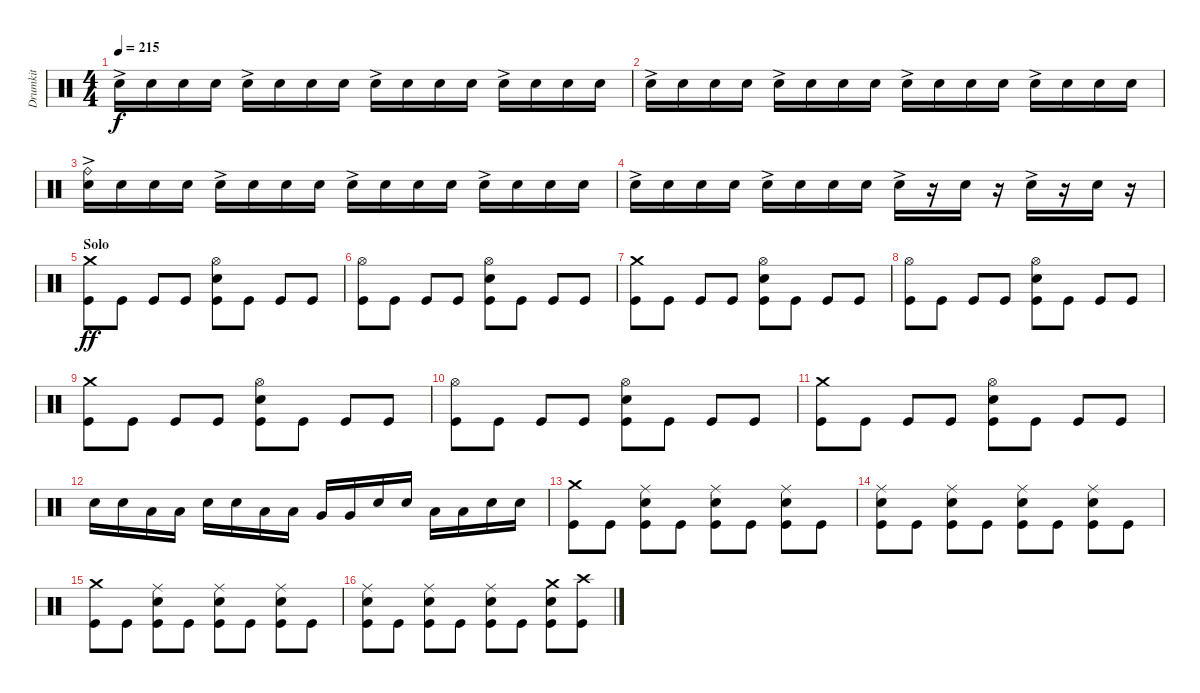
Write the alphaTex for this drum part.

\track ("Drumkit" "Drumkit") {instrument percussion}
\staff {score}
\articulation defaults
\ts (4 4)
\tempo 215
\clef neutral
\ks c "Snare (hit) 2"{ac}.16{dy f} "Snare (hit) 2".16 "Snare (hit) 2".16 "Snare (hit) 2".16 "Snare (hit) 2"{ac}.16 "Snare (hit) 2".16 "Snare (hit) 2".16 "Snare (hit) 2".16 "Snare (hit) 2"{ac}.16 "Snare (hit) 2".16 "Snare (hit) 2".16 "Snare (hit) 2".16 "Snare (hit) 2"{ac}.16 "Snare (hit) 2".16 "Snare (hit) 2".16 "Snare (hit) 2".16
|
"Snare (hit) 2"{ac}.16 "Snare (hit) 2".16 "Snare (hit) 2".16 "Snare (hit) 2".16 "Snare (hit) 2"{ac}.16 "Snare (hit) 2".16 "Snare (hit) 2".16 "Snare (hit) 2".16 "Snare (hit) 2"{ac}.16 "Snare (hit) 2".16 "Snare (hit) 2".16 "Snare (hit) 2".16 "Snare (hit) 2"{ac}.16 "Snare (hit) 2".16 "Snare (hit) 2".16 "Snare (hit) 2".16 |
("Snare (hit) 2"{ac} "Ride (bell)").16 "Snare (hit) 2".16 "Snare (hit) 2".16 "Snare (hit) 2".16 "Snare (hit) 2"{ac}.16 "Snare (hit) 2".16 "Snare (hit) 2".16 "Snare (hit) 2".16 "Snare (hit) 2"{ac}.16 "Snare (hit) 2".16 "Snare (hit) 2".16 "Snare (hit) 2".16 "Snare (hit) 2"{ac}.16 "Snare (hit) 2".16 "Snare (hit) 2".16 "Snare (hit) 2".16 |
"Snare (hit) 2"{ac}.16 "Snare (hit) 2".16 "Snare (hit) 2".16 "Snare (hit) 2".16 "Snare (hit) 2"{ac}.16 "Snare (hit) 2".16 "Snare (hit) 2".16 "Snare (hit) 2".16 "Snare (hit) 2"{ac}.16 r.16 "Snare (hit) 2".16 r.16 "Snare (hit) 2"{ac}.16 r.16 "Snare (hit) 2".16 r.16 |
\section ("" "Solo")
("Kick (hit)" "Crash medium (hit)").8{dy ff} "Kick (hit)".8 "Kick (hit)".8 "Kick (hit)".8 ("Kick (hit)" "Hi-Hat (open)" "Snare (hit) 2").8 "Kick (hit)".8 "Kick (hit)".8 "Kick (hit)".8 |
("Kick (hit)" "Hi-Hat (open)").8 "Kick (hit)".8 "Kick (hit)".8 "Kick (hit)".8 ("Kick (hit)" "Snare (hit) 2" "Hi-Hat (open)").8 "Kick (hit)".8 "Kick (hit)".8 "Kick (hit)".8 |
("Kick (hit)" "Crash medium (hit)").8 "Kick (hit)".8 "Kick (hit)".8 "Kick (hit)".8 ("Kick (hit)" "Hi-Hat (open)" "Snare (hit) 2").8 "Kick (hit)".8 "Kick (hit)".8 "Kick (hit)".8 |
("Kick (hit)" "Hi-Hat (open)").8 "Kick (hit)".8 "Kick (hit)".8 "Kick (hit)".8 ("Kick (hit)" "Hi-Hat (open)" "Snare (hit) 2").8 "Kick (hit)".8 "Kick (hit)".8 "Kick (hit)".8 |
("Kick (hit)" "Crash medium (hit)").8 "Kick (hit)".8 "Kick (hit)".8 "Kick (hit)".8 ("Kick (hit)" "Hi-Hat (open)" "Snare (hit) 2").8 "Kick (hit)".8 "Kick (hit)".8 "Kick (hit)".8 |
("Kick (hit)" "Hi-Hat (open)").8 "Kick (hit)".8 "Kick (hit)".8 "Kick (hit)".8 ("Kick (hit)" "Hi-Hat (open)" "Snare (hit) 2").8 "Kick (hit)".8 "Kick (hit)".8 "Kick (hit)".8 |
("Kick (hit)" "Crash medium (hit)").8 "Kick (hit)".8 "Kick (hit)".8 "Kick (hit)".8 ("Kick (hit)" "Hi-Hat (open)" "Snare (hit) 2").8 "Kick (hit)".8 "Kick (hit)".8 "Kick (hit)".8 |
"Snare (hit) 2".16 "Snare (hit) 2".16 "Low Tom (hit)".16 "Low Tom (hit)".16 "Snare (hit) 2".16 "Snare (hit) 2".16 "Low Tom (hit)".16 "Low Tom (hit)".16 "Very Low Tom (hit)".16 "Very Low Tom (hit)".16 "Snare (hit) 2".16 "Snare (hit) 2".16 "Low Floor Tom (hit)".16 "Low Floor Tom (hit)".16 "Snare (hit) 2".16 "Snare (hit) 2".16 |
("Kick (hit)" "Crash medium (hit)").8 "Kick (hit)".8 ("Kick (hit)" "Ride (middle)" "Snare (hit) 2").8 "Kick (hit)".8 ("Kick (hit)" "Snare (hit) 2" "Ride (middle)").8 "Kick (hit)".8 ("Kick (hit)" "Ride (middle)" "Snare (hit) 2").8 "Kick (hit)".8 |
("Kick (hit)" "Ride (middle)" "Snare (hit) 2").8 "Kick (hit)".8 ("Kick (hit)" "Ride (middle)" "Snare (hit) 2").8 "Kick (hit)".8 ("Kick (hit)" "Snare (hit) 2" "Ride (middle)").8 "Kick (hit)".8 ("Kick (hit)" "Ride (middle)" "Snare (hit) 2").8 "Kick (hit)".8 |
("Kick (hit)" "Crash medium (hit)").8 "Kick (hit)".8 ("Kick (hit)" "Ride (middle)" "Snare (hit) 2").8 "Kick (hit)".8 ("Kick (hit)" "Snare (hit) 2" "Ride (middle)").8 "Kick (hit)".8 ("Kick (hit)" "Ride (middle)" "Snare (hit) 2").8 "Kick (hit)".8 |
("Kick (hit)" "Ride (middle)" "Snare (hit) 2").8 "Kick (hit)".8 ("Kick (hit)" "Ride (middle)" "Snare (hit) 2").8 "Kick (hit)".8 ("Kick (hit)" "Snare (hit) 2" "Ride (middle)").8 "Kick (hit)".8 ("Kick (hit)" "Snare (hit) 2" "Crash medium (hit)").8 ("Kick (hit)" "Crash high (hit)").8
